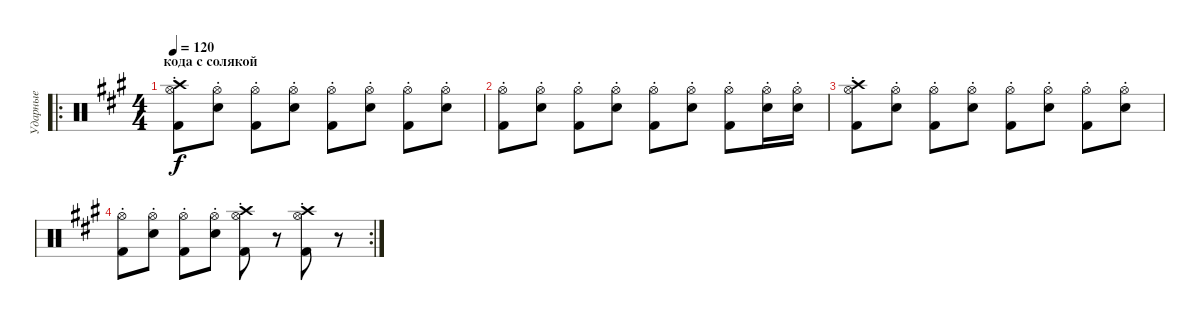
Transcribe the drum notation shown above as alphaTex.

\track ("Ударные" "Ударные") {instrument percussion}
\staff {score}
\articulation defaults
\ro
\ts (4 4)
\section ("" "кода с солякой")
\tempo 120
\clef neutral
\ks f#minor
("Crash high (hit)"{st} "Hi-Hat (open)"{st} "Kick (hit) 2"{st}).8{dy f} ("Snare (hit) 2"{st} "Hi-Hat (open)"{st}).8 ("Hi-Hat (open)"{st} "Kick (hit) 2"{st}).8 ("Snare (hit) 2"{st} "Hi-Hat (open)"{st}).8 ("Hi-Hat (open)"{st} "Kick (hit) 2"{st}).8 ("Snare (hit) 2"{st} "Hi-Hat (open)"{st}).8 ("Hi-Hat (open)"{st} "Kick (hit) 2"{st}).8 ("Snare (hit) 2"{st} "Hi-Hat (open)"{st}).8 |
("Hi-Hat (open)"{st} "Kick (hit) 2"{st}).8 ("Snare (hit) 2"{st} "Hi-Hat (open)"{st}).8 ("Hi-Hat (open)"{st} "Kick (hit) 2"{st}).8 ("Snare (hit) 2"{st} "Hi-Hat (open)"{st}).8 ("Hi-Hat (open)"{st} "Kick (hit) 2"{st}).8 ("Snare (hit) 2"{st} "Hi-Hat (open)"{st}).8 ("Hi-Hat (open)"{st} "Kick (hit) 2"{st}).8 ("Snare (hit) 2"{st} "Hi-Hat (open)"{st}).16 ("Electric Snare (hit)"{st} "Hi-Hat (open)"{st}).16 |
("Crash high (hit)"{st} "Hi-Hat (open)"{st} "Kick (hit) 2"{st}).8 ("Snare (hit) 2"{st} "Hi-Hat (open)"{st}).8 ("Hi-Hat (open)"{st} "Kick (hit) 2"{st}).8 ("Snare (hit) 2"{st} "Hi-Hat (open)"{st}).8 ("Hi-Hat (open)"{st} "Kick (hit) 2"{st}).8 ("Snare (hit) 2"{st} "Hi-Hat (open)"{st}).8 ("Hi-Hat (open)"{st} "Kick (hit) 2"{st}).8 ("Snare (hit) 2"{st} "Hi-Hat (open)"{st}).8 |
\rc 2
("Hi-Hat (open)"{st} "Kick (hit) 2"{st}).8 ("Snare (hit) 2"{st} "Hi-Hat (open)"{st}).8 ("Hi-Hat (open)"{st} "Kick (hit) 2"{st}).8 ("Snare (hit) 2"{st} "Hi-Hat (open)"{st}).8 ("Crash high (hit)" "Hi-Hat (open)"{st} "Kick (hit) 2"{st}).8 r.8 ("Crash high (hit)" "Hi-Hat (open)"{st} "Kick (hit) 2"{st}).8 r.8
